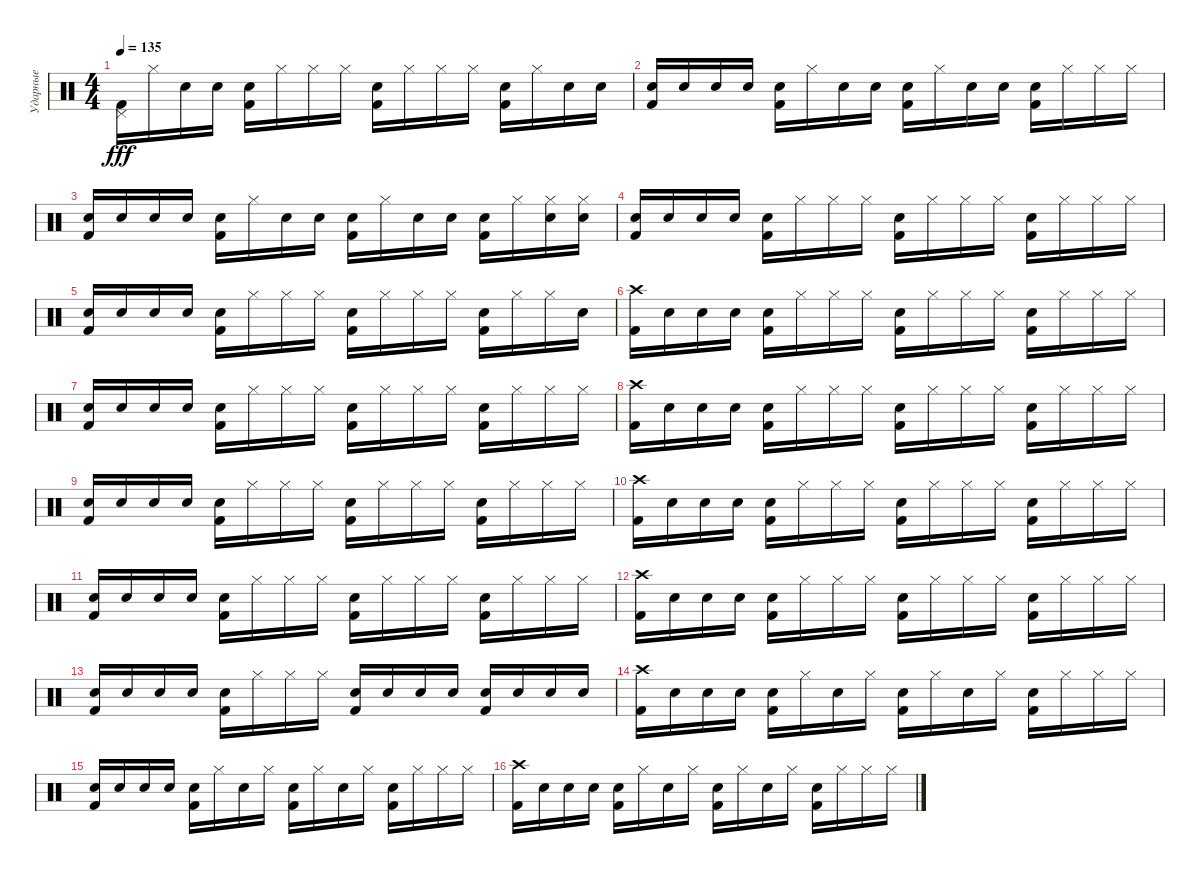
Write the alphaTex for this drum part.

\track ("Ударные" "Ударные") {instrument percussion}
\staff {score}
\articulation defaults
\ts (4 4)
\tempo 135
\clef neutral
\ks c
("Pedal Hi-Hat (hit)" "Kick (hit) 2").16{dy fff} "Hi-Hat (closed)".16 "Snare (hit) 2".16 "Snare (hit) 2".16 ("Snare (hit) 2" "Kick (hit) 2").16 "Hi-Hat (closed)".16 "Hi-Hat (closed)".16 "Hi-Hat (closed)".16 ("Snare (hit) 2" "Kick (hit) 2").16 "Hi-Hat (closed)".16 "Hi-Hat (closed)".16 "Hi-Hat (closed)".16 ("Snare (hit) 2" "Kick (hit) 2").16 "Hi-Hat (closed)".16 "Snare (hit) 2".16 "Snare (hit) 2".16 |
("Snare (hit) 2" "Kick (hit) 2").16 "Snare (hit) 2".16 "Snare (hit) 2".16 "Snare (hit) 2".16 ("Snare (hit) 2" "Kick (hit) 2").16 "Hi-Hat (closed)".16 "Snare (hit) 2".16 "Snare (hit) 2".16 ("Snare (hit) 2" "Kick (hit) 2").16 "Hi-Hat (closed)".16 "Snare (hit) 2".16 "Snare (hit) 2".16 ("Snare (hit) 2" "Kick (hit) 2").16 "Hi-Hat (closed)".16 "Hi-Hat (closed)".16 "Hi-Hat (closed)".16 |
("Snare (hit) 2" "Kick (hit) 2").16 "Snare (hit) 2".16 "Snare (hit) 2".16 "Snare (hit) 2".16 ("Snare (hit) 2" "Kick (hit) 2").16 "Hi-Hat (closed)".16 "Snare (hit) 2".16 "Snare (hit) 2".16 ("Snare (hit) 2" "Kick (hit) 2").16 "Hi-Hat (closed)".16 "Snare (hit) 2".16 "Snare (hit) 2".16 ("Snare (hit) 2" "Kick (hit) 2").16 "Hi-Hat (closed)".16 ("Hi-Hat (closed)" "Snare (hit) 2").16 ("Hi-Hat (closed)" "Snare (hit) 2").16 |
("Snare (hit) 2" "Kick (hit) 2").16 "Snare (hit) 2".16 "Snare (hit) 2".16 "Snare (hit) 2".16 ("Snare (hit) 2" "Kick (hit) 2").16 "Hi-Hat (closed)".16 "Hi-Hat (closed)".16 "Hi-Hat (closed)".16 ("Snare (hit) 2" "Kick (hit) 2").16 "Hi-Hat (closed)".16 "Hi-Hat (closed)".16 "Hi-Hat (closed)".16 ("Snare (hit) 2" "Kick (hit) 2").16 "Hi-Hat (closed)".16 "Hi-Hat (closed)".16 "Hi-Hat (closed)".16 |
("Snare (hit) 2" "Kick (hit) 2").16 "Snare (hit) 2".16 "Snare (hit) 2".16 "Snare (hit) 2".16 ("Snare (hit) 2" "Kick (hit) 2").16 "Hi-Hat (closed)".16 "Hi-Hat (closed)".16 "Hi-Hat (closed)".16 ("Snare (hit) 2" "Kick (hit) 2").16 "Hi-Hat (closed)".16 "Hi-Hat (closed)".16 "Hi-Hat (closed)".16 ("Snare (hit) 2" "Kick (hit) 2").16 "Hi-Hat (closed)".16 "Hi-Hat (closed)".16 "Snare (hit) 2".16 |
("Crash high (hit)" "Kick (hit) 2").16 "Snare (hit) 2".16 "Snare (hit) 2".16 "Snare (hit) 2".16 ("Snare (hit) 2" "Kick (hit) 2").16 "Hi-Hat (closed)".16 "Hi-Hat (closed)".16 "Hi-Hat (closed)".16 ("Snare (hit) 2" "Kick (hit) 2").16 "Hi-Hat (closed)".16 "Hi-Hat (closed)".16 "Hi-Hat (closed)".16 ("Snare (hit) 2" "Kick (hit) 2").16 "Hi-Hat (closed)".16 "Hi-Hat (closed)".16 "Hi-Hat (closed)".16 |
("Snare (hit) 2" "Kick (hit) 2").16 "Snare (hit) 2".16 "Snare (hit) 2".16 "Snare (hit) 2".16 ("Snare (hit) 2" "Kick (hit) 2").16 "Hi-Hat (closed)".16 "Hi-Hat (closed)".16 "Hi-Hat (closed)".16 ("Snare (hit) 2" "Kick (hit) 2").16 "Hi-Hat (closed)".16 "Hi-Hat (closed)".16 "Hi-Hat (closed)".16 ("Snare (hit) 2" "Kick (hit) 2").16 "Hi-Hat (closed)".16 "Hi-Hat (closed)".16 "Hi-Hat (closed)".16 |
("Crash high (hit)" "Kick (hit) 2").16 "Snare (hit) 2".16 "Snare (hit) 2".16 "Snare (hit) 2".16 ("Snare (hit) 2" "Kick (hit) 2").16 "Hi-Hat (closed)".16 "Hi-Hat (closed)".16 "Hi-Hat (closed)".16 ("Snare (hit) 2" "Kick (hit) 2").16 "Hi-Hat (closed)".16 "Hi-Hat (closed)".16 "Hi-Hat (closed)".16 ("Snare (hit) 2" "Kick (hit) 2").16 "Hi-Hat (closed)".16 "Hi-Hat (closed)".16 "Hi-Hat (closed)".16 |
("Snare (hit) 2" "Kick (hit) 2").16 "Snare (hit) 2".16 "Snare (hit) 2".16 "Snare (hit) 2".16 ("Snare (hit) 2" "Kick (hit) 2").16 "Hi-Hat (closed)".16 "Hi-Hat (closed)".16 "Hi-Hat (closed)".16 ("Snare (hit) 2" "Kick (hit) 2").16 "Hi-Hat (closed)".16 "Hi-Hat (closed)".16 "Hi-Hat (closed)".16 ("Snare (hit) 2" "Kick (hit) 2").16 "Hi-Hat (closed)".16 "Hi-Hat (closed)".16 "Hi-Hat (closed)".16 |
("Crash high (hit)" "Kick (hit) 2").16 "Snare (hit) 2".16 "Snare (hit) 2".16 "Snare (hit) 2".16 ("Snare (hit) 2" "Kick (hit) 2").16 "Hi-Hat (closed)".16 "Hi-Hat (closed)".16 "Hi-Hat (closed)".16 ("Snare (hit) 2" "Kick (hit) 2").16 "Hi-Hat (closed)".16 "Hi-Hat (closed)".16 "Hi-Hat (closed)".16 ("Snare (hit) 2" "Kick (hit) 2").16 "Hi-Hat (closed)".16 "Hi-Hat (closed)".16 "Hi-Hat (closed)".16 |
("Snare (hit) 2" "Kick (hit) 2").16 "Snare (hit) 2".16 "Snare (hit) 2".16 "Snare (hit) 2".16 ("Snare (hit) 2" "Kick (hit) 2").16 "Hi-Hat (closed)".16 "Hi-Hat (closed)".16 "Hi-Hat (closed)".16 ("Snare (hit) 2" "Kick (hit) 2").16 "Hi-Hat (closed)".16 "Hi-Hat (closed)".16 "Hi-Hat (closed)".16 ("Snare (hit) 2" "Kick (hit) 2").16 "Hi-Hat (closed)".16 "Hi-Hat (closed)".16 "Hi-Hat (closed)".16 |
("Crash high (hit)" "Kick (hit) 2").16 "Snare (hit) 2".16 "Snare (hit) 2".16 "Snare (hit) 2".16 ("Snare (hit) 2" "Kick (hit) 2").16 "Hi-Hat (closed)".16 "Hi-Hat (closed)".16 "Hi-Hat (closed)".16 ("Snare (hit) 2" "Kick (hit) 2").16 "Hi-Hat (closed)".16 "Hi-Hat (closed)".16 "Hi-Hat (closed)".16 ("Snare (hit) 2" "Kick (hit) 2").16 "Hi-Hat (closed)".16 "Hi-Hat (closed)".16 "Hi-Hat (closed)".16 |
("Snare (hit) 2" "Kick (hit) 2").16 "Snare (hit) 2".16 "Snare (hit) 2".16 "Snare (hit) 2".16 ("Snare (hit) 2" "Kick (hit) 2").16 "Hi-Hat (closed)".16 "Hi-Hat (closed)".16 "Hi-Hat (closed)".16 ("Snare (hit) 2" "Kick (hit) 2").16 "Snare (hit) 2".16 "Snare (hit) 2".16 "Snare (hit) 2".16 ("Snare (hit) 2" "Kick (hit) 2").16 "Snare (hit) 2".16 "Snare (hit) 2".16 "Snare (hit) 2".16 |
("Crash high (hit)" "Kick (hit) 2").16 "Snare (hit) 2".16 "Snare (hit) 2".16 "Snare (hit) 2".16 ("Snare (hit) 2" "Kick (hit) 2").16 "Hi-Hat (closed)".16 "Snare (hit) 2".16 "Hi-Hat (closed)".16 ("Snare (hit) 2" "Kick (hit) 2").16 "Hi-Hat (closed)".16 "Snare (hit) 2".16 "Hi-Hat (closed)".16 ("Snare (hit) 2" "Kick (hit) 2").16 "Hi-Hat (closed)".16 "Hi-Hat (closed)".16 "Hi-Hat (closed)".16 |
("Snare (hit) 2" "Kick (hit) 2").16 "Snare (hit) 2".16 "Snare (hit) 2".16 "Snare (hit) 2".16 ("Snare (hit) 2" "Kick (hit) 2").16 "Hi-Hat (closed)".16 "Snare (hit) 2".16 "Hi-Hat (closed)".16 ("Snare (hit) 2" "Kick (hit) 2").16 "Hi-Hat (closed)".16 "Snare (hit) 2".16 "Hi-Hat (closed)".16 ("Snare (hit) 2" "Kick (hit) 2").16 "Hi-Hat (closed)".16 "Hi-Hat (closed)".16 "Hi-Hat (closed)".16 |
("Crash high (hit)" "Kick (hit) 2").16 "Snare (hit) 2".16 "Snare (hit) 2".16 "Snare (hit) 2".16 ("Snare (hit) 2" "Kick (hit) 2").16 "Hi-Hat (closed)".16 "Snare (hit) 2".16 "Hi-Hat (closed)".16 ("Snare (hit) 2" "Kick (hit) 2").16 "Hi-Hat (closed)".16 "Snare (hit) 2".16 "Hi-Hat (closed)".16 ("Snare (hit) 2" "Kick (hit) 2").16 "Hi-Hat (closed)".16 "Hi-Hat (closed)".16 "Hi-Hat (closed)".16
